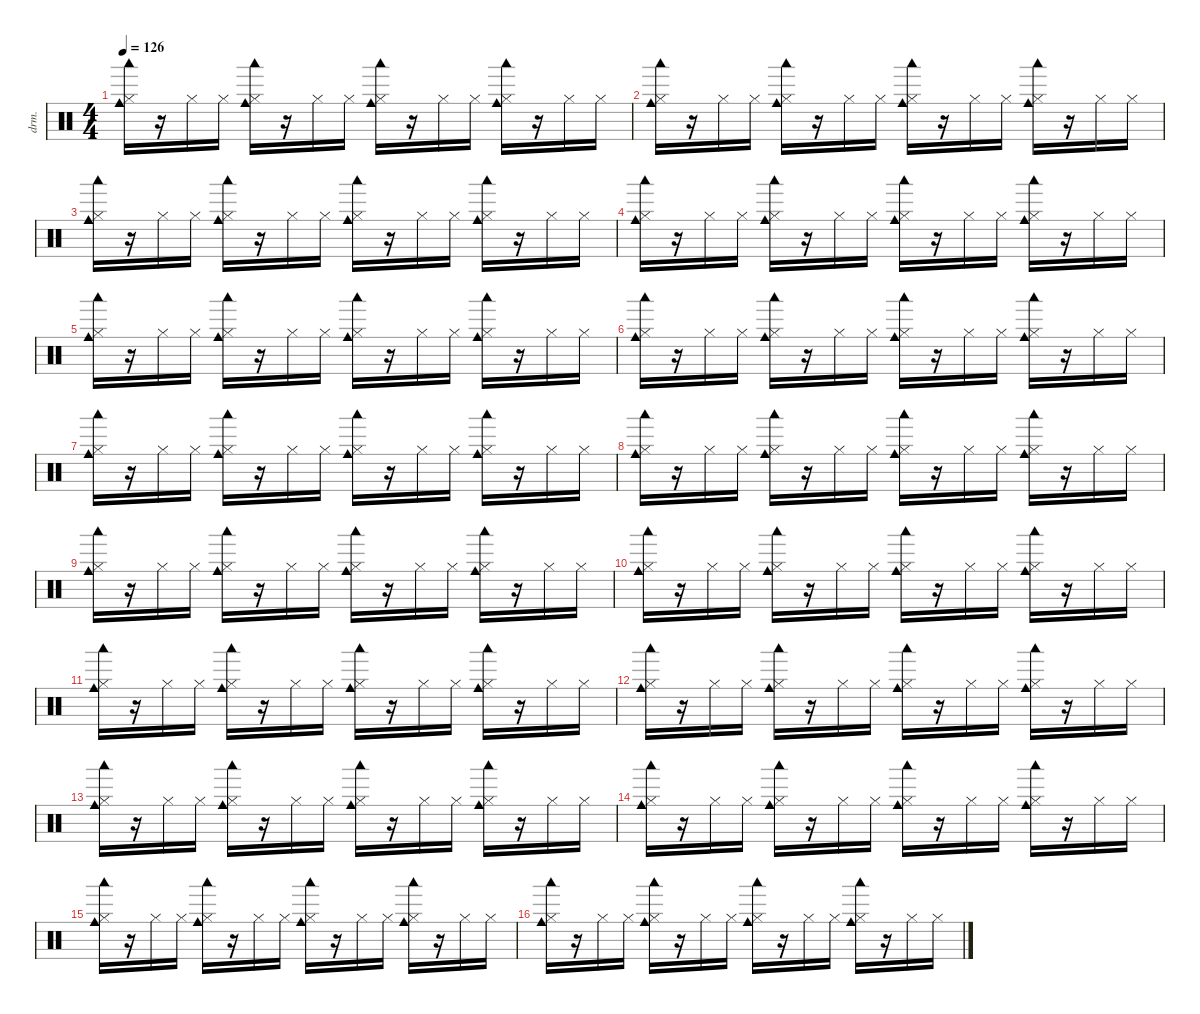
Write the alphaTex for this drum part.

\defaultSystemsLayout 4
\hideDynamics
\bracketExtendMode nobrackets
\otherSystemsTrackNameOrientation horizontal
\track ("Drums" "drm.") {instrument percussion}
\staff {score}
\articulation defaults
\ts (4 4)
\tempo 126
\clef neutral
\ks c
("Cowbell medium (hit)" "Hi-Hat (closed)" "Woodblock low (hit)").16{dy f beam Down} r.16{beam Down} "Hi-Hat (closed)".16{beam Down} "Hi-Hat (closed)".16{beam Down} ("Cowbell medium (hit)" "Hi-Hat (closed)" "Woodblock low (hit)").16{beam Down} r.16{beam Down} "Hi-Hat (closed)".16{beam Down} "Hi-Hat (closed)".16{beam Down} ("Cowbell medium (hit)" "Hi-Hat (closed)" "Woodblock low (hit)").16{beam Down} r.16{beam Down} "Hi-Hat (closed)".16{beam Down} "Hi-Hat (closed)".16{beam Down} ("Cowbell medium (hit)" "Hi-Hat (closed)" "Woodblock low (hit)").16{beam Down} r.16{beam Down} "Hi-Hat (closed)".16{beam Down} "Hi-Hat (closed)".16{beam Down} |
("Cowbell medium (hit)" "Hi-Hat (closed)" "Woodblock low (hit)").16{beam Down} r.16{beam Down} "Hi-Hat (closed)".16{beam Down} "Hi-Hat (closed)".16{beam Down} ("Cowbell medium (hit)" "Hi-Hat (closed)" "Woodblock low (hit)").16{beam Down} r.16{beam Down} "Hi-Hat (closed)".16{beam Down} "Hi-Hat (closed)".16{beam Down} ("Cowbell medium (hit)" "Hi-Hat (closed)" "Woodblock low (hit)").16{beam Down} r.16{beam Down} "Hi-Hat (closed)".16{beam Down} "Hi-Hat (closed)".16{beam Down} ("Cowbell medium (hit)" "Hi-Hat (closed)" "Woodblock low (hit)").16{beam Down} r.16{beam Down} "Hi-Hat (closed)".16{beam Down} "Hi-Hat (closed)".16{beam Down} |
("Cowbell medium (hit)" "Hi-Hat (closed)" "Woodblock low (hit)").16{beam Down} r.16{beam Down} "Hi-Hat (closed)".16{beam Down} "Hi-Hat (closed)".16{beam Down} ("Cowbell medium (hit)" "Hi-Hat (closed)" "Woodblock low (hit)").16{beam Down} r.16{beam Down} "Hi-Hat (closed)".16{beam Down} "Hi-Hat (closed)".16{beam Down} ("Cowbell medium (hit)" "Hi-Hat (closed)" "Woodblock low (hit)").16{beam Down} r.16{beam Down} "Hi-Hat (closed)".16{beam Down} "Hi-Hat (closed)".16{beam Down} ("Cowbell medium (hit)" "Hi-Hat (closed)" "Woodblock low (hit)").16{beam Down} r.16{beam Down} "Hi-Hat (closed)".16{beam Down} "Hi-Hat (closed)".16{beam Down} |
("Cowbell medium (hit)" "Hi-Hat (closed)" "Woodblock low (hit)").16{beam Down} r.16{beam Down} "Hi-Hat (closed)".16{beam Down} "Hi-Hat (closed)".16{beam Down} ("Cowbell medium (hit)" "Hi-Hat (closed)" "Woodblock low (hit)").16{beam Down} r.16{beam Down} "Hi-Hat (closed)".16{beam Down} "Hi-Hat (closed)".16{beam Down} ("Cowbell medium (hit)" "Hi-Hat (closed)" "Woodblock low (hit)").16{beam Down} r.16{beam Down} "Hi-Hat (closed)".16{beam Down} "Hi-Hat (closed)".16{beam Down} ("Cowbell medium (hit)" "Hi-Hat (closed)" "Woodblock low (hit)").16{beam Down} r.16{beam Down} "Hi-Hat (closed)".16{beam Down} "Hi-Hat (closed)".16{beam Down} |
("Cowbell medium (hit)" "Hi-Hat (closed)" "Woodblock low (hit)").16{beam Down} r.16{beam Down} "Hi-Hat (closed)".16{beam Down} "Hi-Hat (closed)".16{beam Down} ("Cowbell medium (hit)" "Hi-Hat (closed)" "Woodblock low (hit)").16{beam Down} r.16{beam Down} "Hi-Hat (closed)".16{beam Down} "Hi-Hat (closed)".16{beam Down} ("Cowbell medium (hit)" "Hi-Hat (closed)" "Woodblock low (hit)").16{beam Down} r.16{beam Down} "Hi-Hat (closed)".16{beam Down} "Hi-Hat (closed)".16{beam Down} ("Cowbell medium (hit)" "Hi-Hat (closed)" "Woodblock low (hit)").16{beam Down} r.16{beam Down} "Hi-Hat (closed)".16{beam Down} "Hi-Hat (closed)".16{beam Down} |
("Cowbell medium (hit)" "Hi-Hat (closed)" "Woodblock low (hit)").16{beam Down} r.16{beam Down} "Hi-Hat (closed)".16{beam Down} "Hi-Hat (closed)".16{beam Down} ("Cowbell medium (hit)" "Hi-Hat (closed)" "Woodblock low (hit)").16{beam Down} r.16{beam Down} "Hi-Hat (closed)".16{beam Down} "Hi-Hat (closed)".16{beam Down} ("Cowbell medium (hit)" "Hi-Hat (closed)" "Woodblock low (hit)").16{beam Down} r.16{beam Down} "Hi-Hat (closed)".16{beam Down} "Hi-Hat (closed)".16{beam Down} ("Cowbell medium (hit)" "Hi-Hat (closed)" "Woodblock low (hit)").16{beam Down} r.16{beam Down} "Hi-Hat (closed)".16{beam Down} "Hi-Hat (closed)".16{beam Down} |
("Cowbell medium (hit)" "Hi-Hat (closed)" "Woodblock low (hit)").16{beam Down} r.16{beam Down} "Hi-Hat (closed)".16{beam Down} "Hi-Hat (closed)".16{beam Down} ("Cowbell medium (hit)" "Hi-Hat (closed)" "Woodblock low (hit)").16{beam Down} r.16{beam Down} "Hi-Hat (closed)".16{beam Down} "Hi-Hat (closed)".16{beam Down} ("Cowbell medium (hit)" "Hi-Hat (closed)" "Woodblock low (hit)").16{beam Down} r.16{beam Down} "Hi-Hat (closed)".16{beam Down} "Hi-Hat (closed)".16{beam Down} ("Cowbell medium (hit)" "Hi-Hat (closed)" "Woodblock low (hit)").16{beam Down} r.16{beam Down} "Hi-Hat (closed)".16{beam Down} "Hi-Hat (closed)".16{beam Down} |
("Cowbell medium (hit)" "Hi-Hat (closed)" "Woodblock low (hit)").16{beam Down} r.16{beam Down} "Hi-Hat (closed)".16{beam Down} "Hi-Hat (closed)".16{beam Down} ("Cowbell medium (hit)" "Hi-Hat (closed)" "Woodblock low (hit)").16{beam Down} r.16{beam Down} "Hi-Hat (closed)".16{beam Down} "Hi-Hat (closed)".16{beam Down} ("Cowbell medium (hit)" "Hi-Hat (closed)" "Woodblock low (hit)").16{beam Down} r.16{beam Down} "Hi-Hat (closed)".16{beam Down} "Hi-Hat (closed)".16{beam Down} ("Cowbell medium (hit)" "Hi-Hat (closed)" "Woodblock low (hit)").16{beam Down} r.16{beam Down} "Hi-Hat (closed)".16{beam Down} "Hi-Hat (closed)".16{beam Down} |
("Cowbell medium (hit)" "Hi-Hat (closed)" "Woodblock low (hit)").16{beam Down} r.16{beam Down} "Hi-Hat (closed)".16{beam Down} "Hi-Hat (closed)".16{beam Down} ("Cowbell medium (hit)" "Hi-Hat (closed)" "Woodblock low (hit)").16{beam Down} r.16{beam Down} "Hi-Hat (closed)".16{beam Down} "Hi-Hat (closed)".16{beam Down} ("Cowbell medium (hit)" "Hi-Hat (closed)" "Woodblock low (hit)").16{beam Down} r.16{beam Down} "Hi-Hat (closed)".16{beam Down} "Hi-Hat (closed)".16{beam Down} ("Cowbell medium (hit)" "Hi-Hat (closed)" "Woodblock low (hit)").16{beam Down} r.16{beam Down} "Hi-Hat (closed)".16{beam Down} "Hi-Hat (closed)".16{beam Down} |
("Cowbell medium (hit)" "Hi-Hat (closed)" "Woodblock low (hit)").16{beam Down} r.16{beam Down} "Hi-Hat (closed)".16{beam Down} "Hi-Hat (closed)".16{beam Down} ("Cowbell medium (hit)" "Hi-Hat (closed)" "Woodblock low (hit)").16{beam Down} r.16{beam Down} "Hi-Hat (closed)".16{beam Down} "Hi-Hat (closed)".16{beam Down} ("Cowbell medium (hit)" "Hi-Hat (closed)" "Woodblock low (hit)").16{beam Down} r.16{beam Down} "Hi-Hat (closed)".16{beam Down} "Hi-Hat (closed)".16{beam Down} ("Cowbell medium (hit)" "Hi-Hat (closed)" "Woodblock low (hit)").16{beam Down} r.16{beam Down} "Hi-Hat (closed)".16{beam Down} "Hi-Hat (closed)".16{beam Down} |
("Cowbell medium (hit)" "Hi-Hat (closed)" "Woodblock low (hit)").16{beam Down} r.16{beam Down} "Hi-Hat (closed)".16{beam Down} "Hi-Hat (closed)".16{beam Down} ("Cowbell medium (hit)" "Hi-Hat (closed)" "Woodblock low (hit)").16{beam Down} r.16{beam Down} "Hi-Hat (closed)".16{beam Down} "Hi-Hat (closed)".16{beam Down} ("Cowbell medium (hit)" "Hi-Hat (closed)" "Woodblock low (hit)").16{beam Down} r.16{beam Down} "Hi-Hat (closed)".16{beam Down} "Hi-Hat (closed)".16{beam Down} ("Cowbell medium (hit)" "Hi-Hat (closed)" "Woodblock low (hit)").16{beam Down} r.16{beam Down} "Hi-Hat (closed)".16{beam Down} "Hi-Hat (closed)".16{beam Down} |
("Cowbell medium (hit)" "Hi-Hat (closed)" "Woodblock low (hit)").16{beam Down} r.16{beam Down} "Hi-Hat (closed)".16{beam Down} "Hi-Hat (closed)".16{beam Down} ("Cowbell medium (hit)" "Hi-Hat (closed)" "Woodblock low (hit)").16{beam Down} r.16{beam Down} "Hi-Hat (closed)".16{beam Down} "Hi-Hat (closed)".16{beam Down} ("Cowbell medium (hit)" "Hi-Hat (closed)" "Woodblock low (hit)").16{beam Down} r.16{beam Down} "Hi-Hat (closed)".16{beam Down} "Hi-Hat (closed)".16{beam Down} ("Cowbell medium (hit)" "Hi-Hat (closed)" "Woodblock low (hit)").16{beam Down} r.16{beam Down} "Hi-Hat (closed)".16{beam Down} "Hi-Hat (closed)".16{beam Down} |
("Cowbell medium (hit)" "Hi-Hat (closed)" "Woodblock low (hit)").16{beam Down} r.16{beam Down} "Hi-Hat (closed)".16{beam Down} "Hi-Hat (closed)".16{beam Down} ("Cowbell medium (hit)" "Hi-Hat (closed)" "Woodblock low (hit)").16{beam Down} r.16{beam Down} "Hi-Hat (closed)".16{beam Down} "Hi-Hat (closed)".16{beam Down} ("Cowbell medium (hit)" "Hi-Hat (closed)" "Woodblock low (hit)").16{beam Down} r.16{beam Down} "Hi-Hat (closed)".16{beam Down} "Hi-Hat (closed)".16{beam Down} ("Cowbell medium (hit)" "Hi-Hat (closed)" "Woodblock low (hit)").16{beam Down} r.16{beam Down} "Hi-Hat (closed)".16{beam Down} "Hi-Hat (closed)".16{beam Down} |
("Cowbell medium (hit)" "Hi-Hat (closed)" "Woodblock low (hit)").16{beam Down} r.16{beam Down} "Hi-Hat (closed)".16{beam Down} "Hi-Hat (closed)".16{beam Down} ("Cowbell medium (hit)" "Hi-Hat (closed)" "Woodblock low (hit)").16{beam Down} r.16{beam Down} "Hi-Hat (closed)".16{beam Down} "Hi-Hat (closed)".16{beam Down} ("Cowbell medium (hit)" "Hi-Hat (closed)" "Woodblock low (hit)").16{beam Down} r.16{beam Down} "Hi-Hat (closed)".16{beam Down} "Hi-Hat (closed)".16{beam Down} ("Cowbell medium (hit)" "Hi-Hat (closed)" "Woodblock low (hit)").16{beam Down} r.16{beam Down} "Hi-Hat (closed)".16{beam Down} "Hi-Hat (closed)".16{beam Down} |
("Cowbell medium (hit)" "Hi-Hat (closed)" "Woodblock low (hit)").16{beam Down} r.16{beam Down} "Hi-Hat (closed)".16{beam Down} "Hi-Hat (closed)".16{beam Down} ("Cowbell medium (hit)" "Hi-Hat (closed)" "Woodblock low (hit)").16{beam Down} r.16{beam Down} "Hi-Hat (closed)".16{beam Down} "Hi-Hat (closed)".16{beam Down} ("Cowbell medium (hit)" "Hi-Hat (closed)" "Woodblock low (hit)").16{beam Down} r.16{beam Down} "Hi-Hat (closed)".16{beam Down} "Hi-Hat (closed)".16{beam Down} ("Cowbell medium (hit)" "Hi-Hat (closed)" "Woodblock low (hit)").16{beam Down} r.16{beam Down} "Hi-Hat (closed)".16{beam Down} "Hi-Hat (closed)".16{beam Down} |
("Cowbell medium (hit)" "Hi-Hat (closed)" "Woodblock low (hit)").16{beam Down} r.16{beam Down} "Hi-Hat (closed)".16{beam Down} "Hi-Hat (closed)".16{beam Down} ("Cowbell medium (hit)" "Hi-Hat (closed)" "Woodblock low (hit)").16{beam Down} r.16{beam Down} "Hi-Hat (closed)".16{beam Down} "Hi-Hat (closed)".16{beam Down} ("Cowbell medium (hit)" "Hi-Hat (closed)" "Woodblock low (hit)").16{beam Down} r.16{beam Down} "Hi-Hat (closed)".16{beam Down} "Hi-Hat (closed)".16{beam Down} ("Cowbell medium (hit)" "Hi-Hat (closed)" "Woodblock low (hit)").16{beam Down} r.16{beam Down} "Hi-Hat (closed)".16{beam Down} "Hi-Hat (closed)".16{beam Down}
